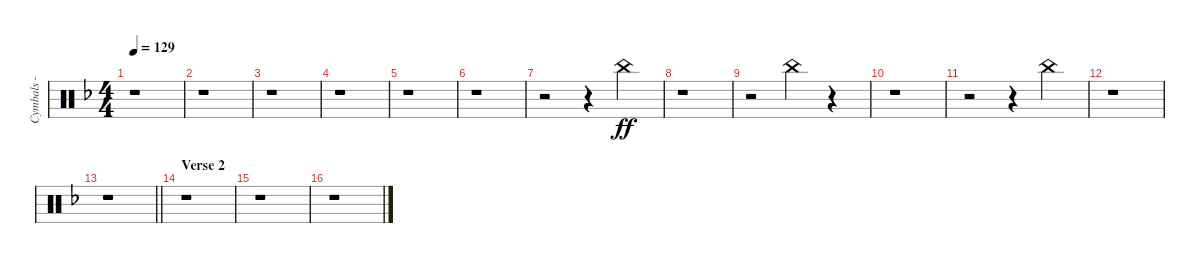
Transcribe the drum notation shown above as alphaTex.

\track ("Cymbals - china" "Cymbals - ") {instrument percussion}
\staff {score}
\articulation defaults
\ts (4 4)
\tempo 129
\clef neutral
\ks dminor
r.1{dy ff} |
r.1 |
r.1 |
r.1 |
r.1 |
r.1 |
r.2 r.4 "China (hit)".4 |
r.1 |
r.2{beam merge} "China (hit)".4 r.4 |
r.1 |
r.2 r.4{beam merge} "China (hit)".4 |
r.1 |
\barLineRight lightlight
r.1 |
\section ("" "Verse 2")
r.1 |
r.1 |
r.1
